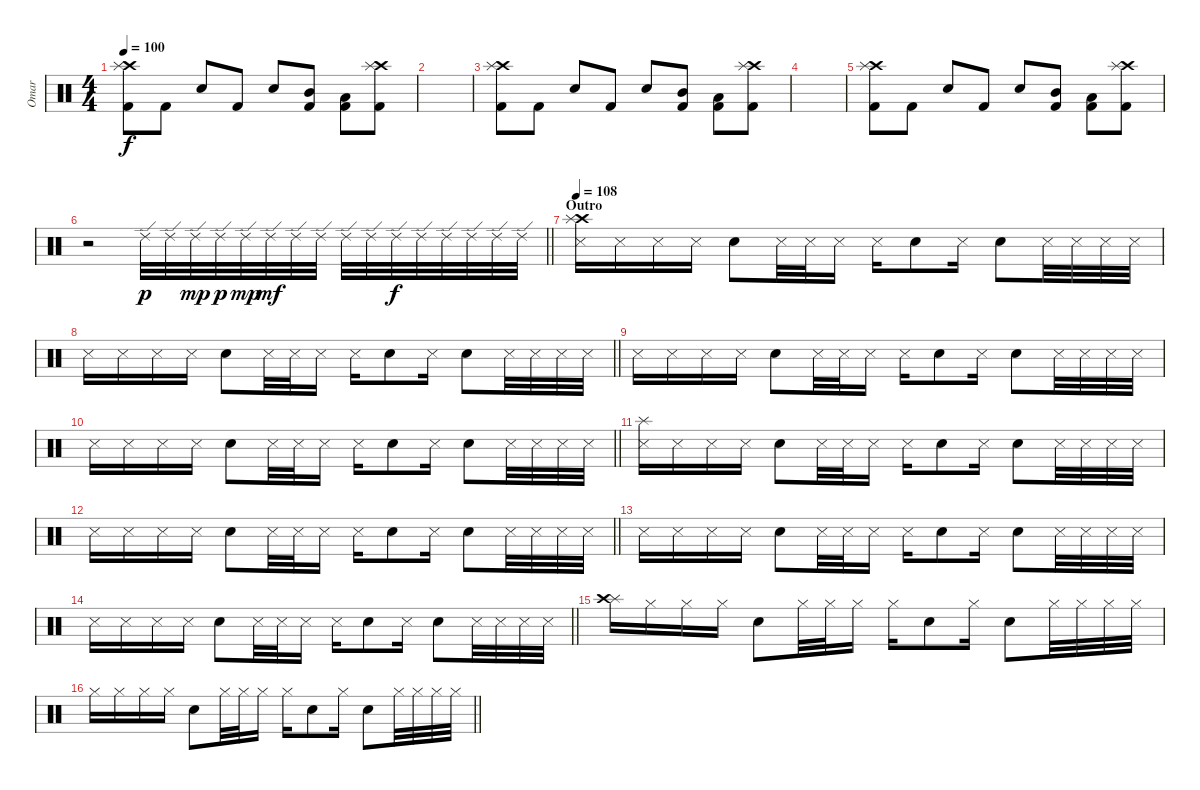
\track ("Omar" "Omar") {instrument percussion}
\staff {score}
\articulation defaults
\ts (4 4)
\section ("" "")
\tempo 100
\clef neutral
\ks c
("Crash high (hit)" "Splash (hit)" "Kick (hit) 2").8{dy f} "Kick (hit) 2".8 "Snare (hit) 2".8 "Kick (hit) 2".8 "Snare (hit) 2".8 ("Mid Tom (hit)" "Kick (hit) 2").8 ("Low Tom (hit)" "Kick (hit) 2").8 ("Crash high (hit)" "Splash (hit)" "Kick (hit) 2").8 |
|
("Crash high (hit)" "Splash (hit)" "Kick (hit) 2").8 "Kick (hit) 2".8 "Snare (hit) 2".8 "Kick (hit) 2".8 "Snare (hit) 2".8 ("Mid Tom (hit)" "Kick (hit) 2").8 ("Low Tom (hit)" "Kick (hit) 2").8 ("Crash high (hit)" "Splash (hit)" "Kick (hit) 2").8 |
|
("Crash high (hit)" "Splash (hit)" "Kick (hit) 2").8 "Kick (hit) 2".8 "Snare (hit) 2".8 "Kick (hit) 2".8 "Snare (hit) 2".8 ("Mid Tom (hit)" "Kick (hit) 2").8 ("Low Tom (hit)" "Kick (hit) 2").8 ("Crash high (hit)" "Splash (hit)" "Kick (hit) 2").8 |
\barLineRight lightlight
r.2 "Ride (edge) 2".32{dy p} "Ride (edge) 2".32 "Ride (edge) 2".32{dy mp} "Ride (edge) 2".32{dy p} "Ride (edge) 2".32{dy mp} "Ride (edge) 2".32{dy mf} "Ride (edge) 2".32 "Ride (edge) 2".32 "Ride (edge) 2".32 "Ride (edge) 2".32 "Ride (edge) 2".32{dy f} "Ride (edge) 2".32 "Ride (edge) 2".32 "Ride (edge) 2".32 "Ride (edge) 2".32 "Ride (edge) 2".32 |
\section ("" "Outro")
\tempo 108
("Crash high (hit)" "Splash (hit)" "Metronome (hit)").16 "Metronome (hit)".16 "Metronome (hit)".16 "Metronome (hit)".16 "Snare (hit) 2".8 "Metronome (hit)".32 "Metronome (hit)".32 "Metronome (hit)".16 "Metronome (hit)".16 "Snare (hit) 2".8 "Metronome (hit)".16 "Snare (hit) 2".8 "Metronome (hit)".32 "Metronome (hit)".32 "Metronome (hit)".32 "Metronome (hit)".32 |
\barLineRight lightlight "Metronome (hit)".16 "Metronome (hit)".16 "Metronome (hit)".16 "Metronome (hit)".16 "Snare (hit) 2".8 "Metronome (hit)".32 "Metronome (hit)".32 "Metronome (hit)".16 "Metronome (hit)".16 "Snare (hit) 2".8 "Metronome (hit)".16 "Snare (hit) 2".8 "Metronome (hit)".32 "Metronome (hit)".32 "Metronome (hit)".32 "Metronome (hit)".32
|
"Metronome (hit)".16 "Metronome (hit)".16 "Metronome (hit)".16 "Metronome (hit)".16 "Snare (hit) 2".8 "Metronome (hit)".32 "Metronome (hit)".32 "Metronome (hit)".16 "Metronome (hit)".16 "Snare (hit) 2".8 "Metronome (hit)".16 "Snare (hit) 2".8 "Metronome (hit)".32 "Metronome (hit)".32 "Metronome (hit)".32 "Metronome (hit)".32 |
\barLineRight lightlight "Metronome (hit)".16 "Metronome (hit)".16 "Metronome (hit)".16 "Metronome (hit)".16 "Snare (hit) 2".8 "Metronome (hit)".32 "Metronome (hit)".32 "Metronome (hit)".16 "Metronome (hit)".16 "Snare (hit) 2".8 "Metronome (hit)".16 "Snare (hit) 2".8 "Metronome (hit)".32 "Metronome (hit)".32 "Metronome (hit)".32 "Metronome (hit)".32
|
("Splash (hit)" "Metronome (hit)").16 "Metronome (hit)".16 "Metronome (hit)".16 "Metronome (hit)".16 "Snare (hit) 2".8 "Metronome (hit)".32 "Metronome (hit)".32 "Metronome (hit)".16 "Metronome (hit)".16 "Snare (hit) 2".8 "Metronome (hit)".16 "Snare (hit) 2".8 "Metronome (hit)".32 "Metronome (hit)".32 "Metronome (hit)".32 "Metronome (hit)".32 |
\barLineRight lightlight "Metronome (hit)".16 "Metronome (hit)".16 "Metronome (hit)".16 "Metronome (hit)".16 "Snare (hit) 2".8 "Metronome (hit)".32 "Metronome (hit)".32 "Metronome (hit)".16 "Metronome (hit)".16 "Snare (hit) 2".8 "Metronome (hit)".16 "Snare (hit) 2".8 "Metronome (hit)".32 "Metronome (hit)".32 "Metronome (hit)".32 "Metronome (hit)".32
|
"Metronome (hit)".16 "Metronome (hit)".16 "Metronome (hit)".16 "Metronome (hit)".16 "Snare (hit) 2".8 "Metronome (hit)".32 "Metronome (hit)".32 "Metronome (hit)".16 "Metronome (hit)".16 "Snare (hit) 2".8 "Metronome (hit)".16 "Snare (hit) 2".8 "Metronome (hit)".32 "Metronome (hit)".32 "Metronome (hit)".32 "Metronome (hit)".32 |
\barLineRight lightlight "Metronome (hit)".16 "Metronome (hit)".16 "Metronome (hit)".16 "Metronome (hit)".16 "Snare (hit) 2".8 "Metronome (hit)".32 "Metronome (hit)".32 "Metronome (hit)".16 "Metronome (hit)".16 "Snare (hit) 2".8 "Metronome (hit)".16 "Snare (hit) 2".8 "Metronome (hit)".32 "Metronome (hit)".32 "Metronome (hit)".32 "Metronome (hit)".32
|
("Splash (hit)" "Crash high (hit)").16 "Hi-Hat (closed)".16 "Hi-Hat (closed)".16 "Hi-Hat (closed)".16 "Snare (hit) 2".8 "Hi-Hat (closed)".32 "Hi-Hat (closed)".32 "Hi-Hat (closed)".16 "Hi-Hat (closed)".16 "Snare (hit) 2".8 "Hi-Hat (closed)".16 "Snare (hit) 2".8 "Hi-Hat (closed)".32 "Hi-Hat (closed)".32 "Hi-Hat (closed)".32 "Hi-Hat (closed)".32 |
\barLineRight lightlight "Hi-Hat (closed)".16 "Hi-Hat (closed)".16 "Hi-Hat (closed)".16 "Hi-Hat (closed)".16 "Snare (hit) 2".8 "Hi-Hat (closed)".32 "Hi-Hat (closed)".32 "Hi-Hat (closed)".16 "Hi-Hat (closed)".16 "Snare (hit) 2".8 "Hi-Hat (closed)".16 "Snare (hit) 2".8 "Hi-Hat (closed)".32 "Hi-Hat (closed)".32 "Hi-Hat (closed)".32 "Hi-Hat (closed)".32
